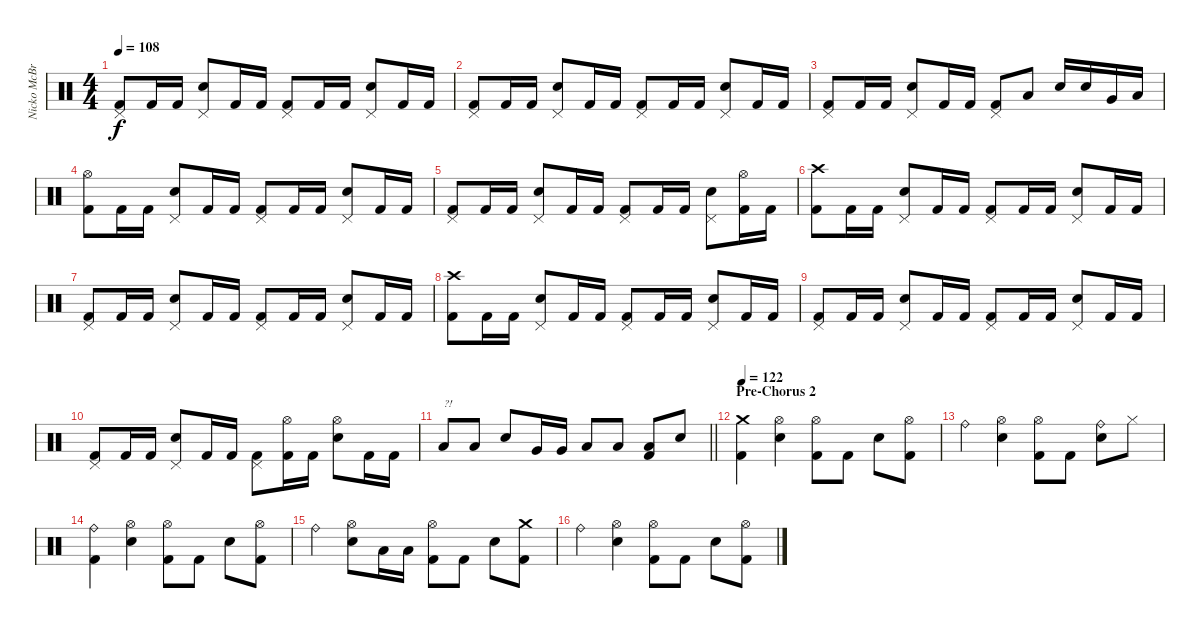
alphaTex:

\track ("Nicko McBrain" "Nicko McBr") {instrument percussion}
\staff {score}
\articulation defaults
\ts (4 4)
\tempo 108
\clef neutral
\ks c
("Pedal Hi-Hat (hit)" "Kick (hit) 2").8{dy f} "Kick (hit) 2".16 "Kick (hit) 2".16 ("Pedal Hi-Hat (hit)" "Electric Snare (hit)").8 "Kick (hit) 2".16 "Kick (hit) 2".16 ("Pedal Hi-Hat (hit)" "Kick (hit) 2").8 "Kick (hit) 2".16 "Kick (hit) 2".16 ("Pedal Hi-Hat (hit)" "Electric Snare (hit)").8 "Kick (hit) 2".16 "Kick (hit) 2".16 |
("Pedal Hi-Hat (hit)" "Kick (hit) 2").8 "Kick (hit) 2".16 "Kick (hit) 2".16 ("Pedal Hi-Hat (hit)" "Electric Snare (hit)").8 "Kick (hit) 2".16 "Kick (hit) 2".16 ("Pedal Hi-Hat (hit)" "Kick (hit) 2").8 "Kick (hit) 2".16 "Kick (hit) 2".16 ("Pedal Hi-Hat (hit)" "Electric Snare (hit)").8 "Kick (hit) 2".16 "Kick (hit) 2".16 |
("Pedal Hi-Hat (hit)" "Kick (hit) 2").8 "Kick (hit) 2".16 "Kick (hit) 2".16 ("Pedal Hi-Hat (hit)" "Electric Snare (hit)").8 "Kick (hit) 2".16 "Kick (hit) 2".16 ("Pedal Hi-Hat (hit)" "Kick (hit) 2").8 "Low Floor Tom (hit)".8 "Electric Snare (hit)".16 "Electric Snare (hit)".16 "Very Low Tom (hit)".16 "Low Floor Tom (hit)".16 |
("Hi-Hat (open)" "Kick (hit) 2").8 "Kick (hit) 2".16 "Kick (hit) 2".16 ("Pedal Hi-Hat (hit)" "Electric Snare (hit)").8 "Kick (hit) 2".16 "Kick (hit) 2".16 ("Pedal Hi-Hat (hit)" "Kick (hit) 2").8 "Kick (hit) 2".16 "Kick (hit) 2".16 ("Pedal Hi-Hat (hit)" "Electric Snare (hit)").8 "Kick (hit) 2".16 "Kick (hit) 2".16 |
("Pedal Hi-Hat (hit)" "Kick (hit) 2").8 "Kick (hit) 2".16 "Kick (hit) 2".16 ("Pedal Hi-Hat (hit)" "Electric Snare (hit)").8 "Kick (hit) 2".16 "Kick (hit) 2".16 ("Pedal Hi-Hat (hit)" "Kick (hit) 2").8 "Kick (hit) 2".16 "Kick (hit) 2".16 ("Pedal Hi-Hat (hit)" "Electric Snare (hit)").8 ("Hi-Hat (open)" "Kick (hit) 2").16 "Kick (hit) 2".16 |
("Crash high (hit)" "Kick (hit) 2").8 "Kick (hit) 2".16 "Kick (hit) 2".16 ("Pedal Hi-Hat (hit)" "Electric Snare (hit)").8 "Kick (hit) 2".16 "Kick (hit) 2".16 ("Pedal Hi-Hat (hit)" "Kick (hit) 2").8 "Kick (hit) 2".16 "Kick (hit) 2".16 ("Pedal Hi-Hat (hit)" "Electric Snare (hit)").8 "Kick (hit) 2".16 "Kick (hit) 2".16 |
("Pedal Hi-Hat (hit)" "Kick (hit) 2").8 "Kick (hit) 2".16 "Kick (hit) 2".16 ("Pedal Hi-Hat (hit)" "Electric Snare (hit)").8 "Kick (hit) 2".16 "Kick (hit) 2".16 ("Pedal Hi-Hat (hit)" "Kick (hit) 2").8 "Kick (hit) 2".16 "Kick (hit) 2".16 ("Pedal Hi-Hat (hit)" "Electric Snare (hit)").8 "Kick (hit) 2".16 "Kick (hit) 2".16 |
("Crash high (hit)" "Kick (hit) 2").8 "Kick (hit) 2".16 "Kick (hit) 2".16 ("Pedal Hi-Hat (hit)" "Electric Snare (hit)").8 "Kick (hit) 2".16 "Kick (hit) 2".16 ("Pedal Hi-Hat (hit)" "Kick (hit) 2").8 "Kick (hit) 2".16 "Kick (hit) 2".16 ("Pedal Hi-Hat (hit)" "Electric Snare (hit)").8 "Kick (hit) 2".16 "Kick (hit) 2".16 |
("Pedal Hi-Hat (hit)" "Kick (hit) 2").8 "Kick (hit) 2".16 "Kick (hit) 2".16 ("Pedal Hi-Hat (hit)" "Electric Snare (hit)").8 "Kick (hit) 2".16 "Kick (hit) 2".16 ("Pedal Hi-Hat (hit)" "Kick (hit) 2").8 "Kick (hit) 2".16 "Kick (hit) 2".16 ("Pedal Hi-Hat (hit)" "Electric Snare (hit)").8 "Kick (hit) 2".16 "Kick (hit) 2".16 |
("Pedal Hi-Hat (hit)" "Kick (hit) 2").8 "Kick (hit) 2".16 "Kick (hit) 2".16 ("Pedal Hi-Hat (hit)" "Electric Snare (hit)").8 "Kick (hit) 2".16 "Kick (hit) 2".16 ("Pedal Hi-Hat (hit)" "Kick (hit) 2").8 ("Hi-Hat (open)" "Kick (hit) 2").16 "Kick (hit) 2".16 ("Hi-Hat (open)" "Electric Snare (hit)").8 "Kick (hit) 2".16 "Kick (hit) 2".16 |
\barLineRight lightlight "Low Tom (hit)".8{txt "?!"} "Low Tom (hit)".8 "Electric Snare (hit)".8 "Very Low Tom (hit)".16 "Very Low Tom (hit)".16 "Low Floor Tom (hit)".8 "Low Floor Tom (hit)".8
("Low Floor Tom (hit)" "Kick (hit) 2").8 "Electric Snare (hit)".8 |
\section ("" "Pre-Chorus 2")
\tempo 122
("Crash medium (hit)" "Kick (hit) 2").4 ("Hi-Hat (open)" "Electric Snare (hit)").4 ("Hi-Hat (open)" "Kick (hit) 2").8 "Kick (hit) 2".8 "Electric Snare (hit)".8 ("Hi-Hat (open)" "Kick (hit) 2").8 |
"Ride (bell)".4 ("Hi-Hat (open)" "Electric Snare (hit)").4 ("Hi-Hat (open)" "Kick (hit) 2").8 "Kick (hit) 2".8 ("Ride (bell)" "Electric Snare (hit)").8 "Hi-Hat (closed)".8 |
("Ride (bell)" "Kick (hit) 2").4 ("Hi-Hat (open)" "Electric Snare (hit)").4 ("Hi-Hat (open)" "Kick (hit) 2").8 "Kick (hit) 2".8 "Electric Snare (hit)".8 ("Hi-Hat (open)" "Kick (hit) 2").8 |
"Ride (bell)".4 ("Hi-Hat (open)" "Electric Snare (hit)").8 "Low Tom (hit)".16 "Low Tom (hit)".16 ("Hi-Hat (open)" "Kick (hit) 2").8 "Kick (hit) 2".8 "Electric Snare (hit)".8 ("Crash medium (hit)" "Kick (hit) 2").8 |
"Ride (bell)".4 ("Hi-Hat (open)" "Electric Snare (hit)").4 ("Hi-Hat (open)" "Kick (hit) 2").8 "Kick (hit) 2".8 "Electric Snare (hit)".8 ("Hi-Hat (open)" "Kick (hit) 2").8
